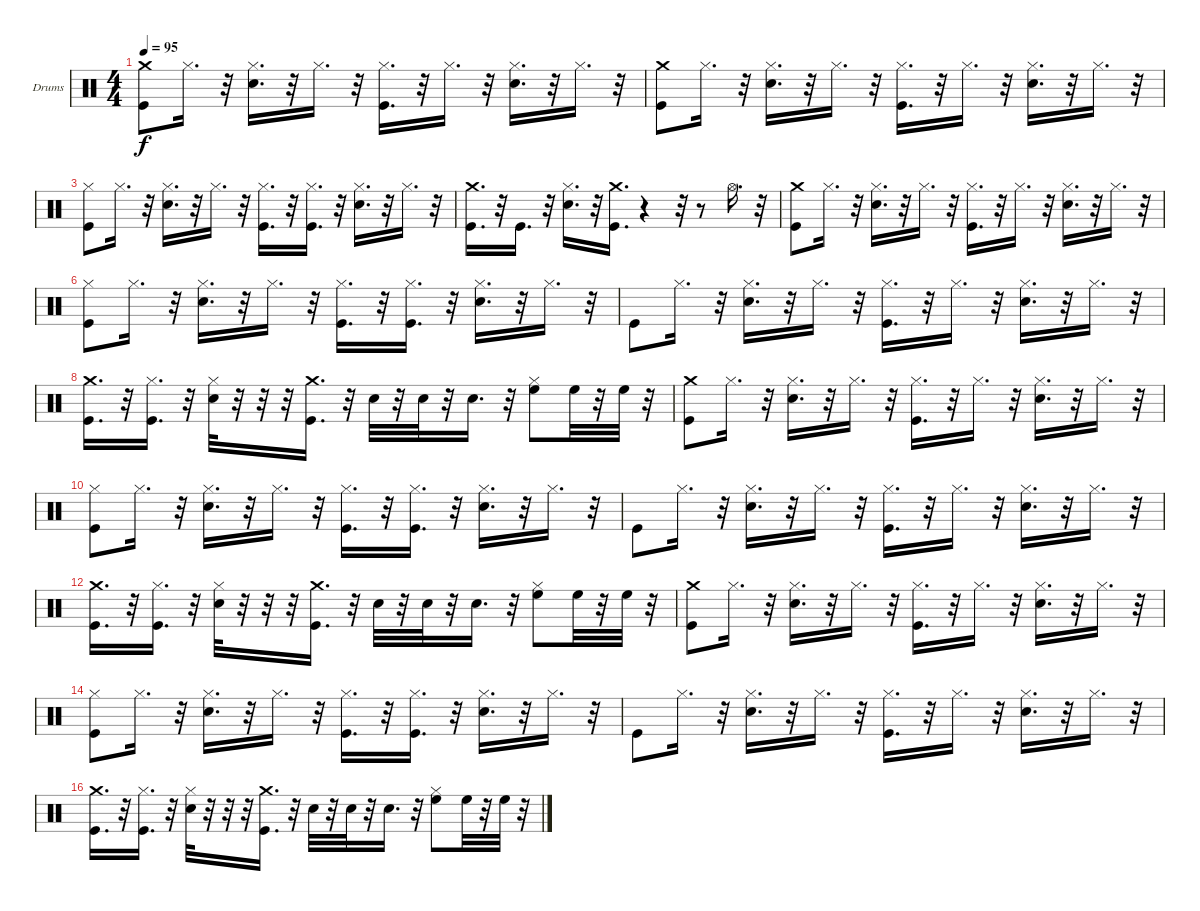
\bracketExtendMode nobrackets
\firstSystemTrackNameOrientation horizontal
\otherSystemsTrackNameOrientation horizontal
\defaultBarNumberDisplay FirstOfSystem
\track ("Drumkit" "Drums") {instrument percussion}
\staff {score}
\articulation defaults
\ts (4 4)
\tempo 95
\clef neutral
\scale
0.5
\ks c
("Crash medium (hit)" "Kick (hit)").8{dy f} "Hi-Hat (closed)".16{d} r.32 ("Hi-Hat (closed)" "Snare (hit) 2").16{d} r.32 "Hi-Hat (closed)".16{d} r.32 ("Hi-Hat (closed)" "Kick (hit)").16{d} r.32 "Hi-Hat (closed)".16{d} r.32 ("Hi-Hat (closed)" "Snare (hit) 2").16{d} r.32 "Hi-Hat (closed)".16{d} r.32 |
\scale
0.5 ("Crash medium (hit)" "Kick (hit)").8 "Hi-Hat (closed)".16{d} r.32 ("Hi-Hat (closed)" "Snare (hit) 2").16{d} r.32 "Hi-Hat (closed)".16{d} r.32 ("Hi-Hat (closed)" "Kick (hit)").16{d} r.32 "Hi-Hat (closed)".16{d} r.32 ("Hi-Hat (closed)" "Snare (hit) 2").16{d} r.32 "Hi-Hat (closed)".16{d} r.32 |
\scale
0.530021 ("Hi-Hat (closed)" "Kick (hit)").8 "Hi-Hat (closed)".16{d} r.32 ("Hi-Hat (closed)" "Snare (hit) 2").16{d} r.32 "Hi-Hat (closed)".16{d} r.32 ("Hi-Hat (closed)" "Kick (hit)").16{d} r.32 ("Hi-Hat (closed)" "Kick (hit)").16{d} r.32 ("Hi-Hat (closed)" "Snare (hit) 2").16{d} r.32 "Hi-Hat (closed)".16{d} r.32 |
\scale
0.469979 ("Kick (hit)" "Crash medium (hit)").16{d} r.32 "Kick (hit)".16{d} r.32 ("Hi-Hat (closed)" "Snare (hit) 2").16{d} r.32 ("Kick (hit)" "Crash medium (hit)").16{d} r.4 r.32 r.8 "Hi-Hat (open)".16{d} r.32 |
\scale
0.5 ("Kick (hit)" "Crash medium (hit)").8 "Hi-Hat (closed)".16{d} r.32 ("Hi-Hat (closed)" "Snare (hit) 2").16{d} r.32 "Hi-Hat (closed)".16{d} r.32 ("Hi-Hat (closed)" "Kick (hit)").16{d} r.32 "Hi-Hat (closed)".16{d} r.32 ("Hi-Hat (closed)" "Snare (hit) 2").16{d} r.32 "Hi-Hat (closed)".16{d} r.32 |
\scale
0.5 ("Hi-Hat (closed)" "Kick (hit)").8 "Hi-Hat (closed)".16{d} r.32 ("Hi-Hat (closed)" "Snare (hit) 2").16{d} r.32 "Hi-Hat (closed)".16{d} r.32 ("Hi-Hat (closed)" "Kick (hit)").16{d} r.32 ("Hi-Hat (closed)" "Kick (hit)").16{d} r.32 ("Hi-Hat (closed)" "Snare (hit) 2").16{d} r.32 "Hi-Hat (closed)".16{d} r.32 |
\scale
0.462094 "Kick (hit)".8 "Hi-Hat (closed)".16{d} r.32 ("Hi-Hat (closed)" "Snare (hit) 2").16{d} r.32 "Hi-Hat (closed)".16{d} r.32 ("Hi-Hat (closed)" "Kick (hit)").16{d} r.32 "Hi-Hat (closed)".16{d} r.32 ("Hi-Hat (closed)" "Snare (hit) 2").16{d} r.32 "Hi-Hat (closed)".16{d} r.32 |
\scale
0.537906 ("Kick (hit)" "Crash medium (hit)").16{d} r.32 ("Kick (hit)" "Hi-Hat (closed)").16{d} r.32 ("Hi-Hat (closed)" "Snare (hit) 2").32 r.32 r.32 r.32 ("Kick (hit)" "Crash medium (hit)").16{d} r.32 "Snare (hit) 2".32 r.32 "Snare (hit) 2".32 r.32 "Snare (hit) 2".16{d} r.32 ("High Floor Tom (hit)" "Hi-Hat (closed)").8 "High Floor Tom (hit)".32 r.32 "High Floor Tom (hit)".32 r.32 |
\scale
0.5 ("Kick (hit)" "Crash medium (hit)").8 "Hi-Hat (closed)".16{d} r.32 ("Hi-Hat (closed)" "Snare (hit) 2").16{d} r.32 "Hi-Hat (closed)".16{d} r.32 ("Hi-Hat (closed)" "Kick (hit)").16{d} r.32 "Hi-Hat (closed)".16{d} r.32 ("Hi-Hat (closed)" "Snare (hit) 2").16{d} r.32 "Hi-Hat (closed)".16{d} r.32 |
\scale
0.5 ("Hi-Hat (closed)" "Kick (hit)").8 "Hi-Hat (closed)".16{d} r.32 ("Hi-Hat (closed)" "Snare (hit) 2").16{d} r.32 "Hi-Hat (closed)".16{d} r.32 ("Hi-Hat (closed)" "Kick (hit)").16{d} r.32 ("Hi-Hat (closed)" "Kick (hit)").16{d} r.32 ("Hi-Hat (closed)" "Snare (hit) 2").16{d} r.32 "Hi-Hat (closed)".16{d} r.32 |
\scale
0.462094 "Kick (hit)".8 "Hi-Hat (closed)".16{d} r.32 ("Hi-Hat (closed)" "Snare (hit) 2").16{d} r.32 "Hi-Hat (closed)".16{d} r.32 ("Hi-Hat (closed)" "Kick (hit)").16{d} r.32 "Hi-Hat (closed)".16{d} r.32 ("Hi-Hat (closed)" "Snare (hit) 2").16{d} r.32 "Hi-Hat (closed)".16{d} r.32 |
\scale
0.537906 ("Kick (hit)" "Crash medium (hit)").16{d} r.32 ("Kick (hit)" "Hi-Hat (closed)").16{d} r.32 ("Hi-Hat (closed)" "Snare (hit) 2").32 r.32 r.32 r.32 ("Kick (hit)" "Crash medium (hit)").16{d} r.32 "Snare (hit) 2".32 r.32 "Snare (hit) 2".32 r.32 "Snare (hit) 2".16{d} r.32 ("High Floor Tom (hit)" "Hi-Hat (closed)").8 "High Floor Tom (hit)".32 r.32 "High Floor Tom (hit)".32 r.32 |
\scale
0.5 ("Kick (hit)" "Crash medium (hit)").8 "Hi-Hat (closed)".16{d} r.32 ("Hi-Hat (closed)" "Snare (hit) 2").16{d} r.32 "Hi-Hat (closed)".16{d} r.32 ("Hi-Hat (closed)" "Kick (hit)").16{d} r.32 "Hi-Hat (closed)".16{d} r.32 ("Hi-Hat (closed)" "Snare (hit) 2").16{d} r.32 "Hi-Hat (closed)".16{d} r.32 |
\scale
0.5 ("Hi-Hat (closed)" "Kick (hit)").8 "Hi-Hat (closed)".16{d} r.32 ("Hi-Hat (closed)" "Snare (hit) 2").16{d} r.32 "Hi-Hat (closed)".16{d} r.32 ("Hi-Hat (closed)" "Kick (hit)").16{d} r.32 ("Hi-Hat (closed)" "Kick (hit)").16{d} r.32 ("Hi-Hat (closed)" "Snare (hit) 2").16{d} r.32 "Hi-Hat (closed)".16{d} r.32 |
\scale
0.462094 "Kick (hit)".8 "Hi-Hat (closed)".16{d} r.32 ("Hi-Hat (closed)" "Snare (hit) 2").16{d} r.32 "Hi-Hat (closed)".16{d} r.32 ("Hi-Hat (closed)" "Kick (hit)").16{d} r.32 "Hi-Hat (closed)".16{d} r.32 ("Hi-Hat (closed)" "Snare (hit) 2").16{d} r.32 "Hi-Hat (closed)".16{d} r.32 |
\scale
0.537906 ("Kick (hit)" "Crash medium (hit)").16{d} r.32 ("Kick (hit)" "Hi-Hat (closed)").16{d} r.32 ("Hi-Hat (closed)" "Snare (hit) 2").32 r.32 r.32 r.32 ("Kick (hit)" "Crash medium (hit)").16{d} r.32 "Snare (hit) 2".32 r.32 "Snare (hit) 2".32 r.32 "Snare (hit) 2".16{d} r.32 ("High Floor Tom (hit)" "Hi-Hat (closed)").8 "High Floor Tom (hit)".32 r.32 "High Floor Tom (hit)".32 r.32
